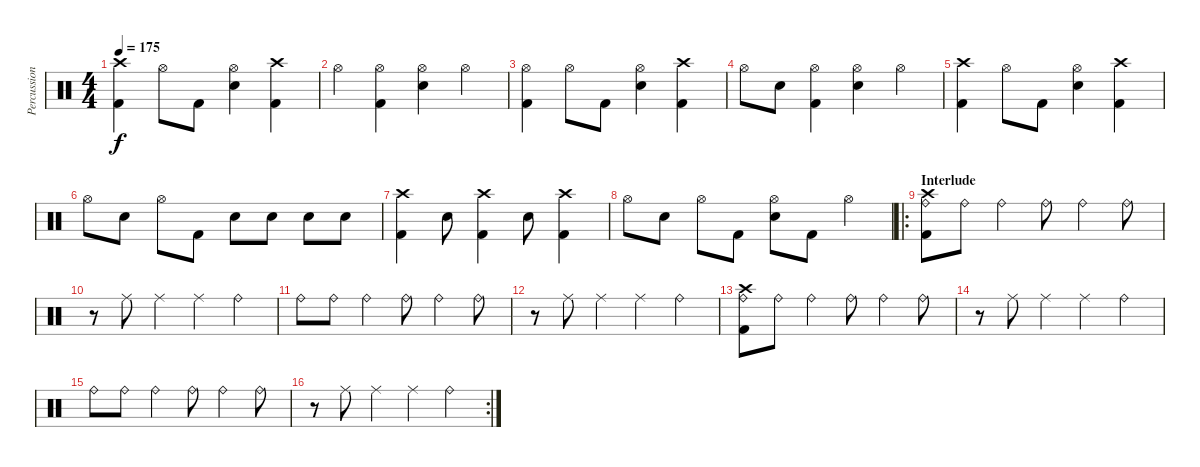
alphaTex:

\track ("Percussion" "Percussion") {instrument percussion}
\staff {score}
\articulation defaults
\ts (4 4)
\tempo 175
\clef neutral
\ks c
("Crash high (hit)" "Kick (hit) 2").4{dy f} "Hi-Hat (open)".8 "Kick (hit) 2".8 ("Hi-Hat (open)" "Electric Snare (hit)").4 ("Crash high (hit)" "Kick (hit) 2").4 |
"Hi-Hat (open)".4 ("Hi-Hat (open)" "Kick (hit) 2").4 ("Hi-Hat (open)" "Electric Snare (hit)").4 "Hi-Hat (open)".4 |
("Hi-Hat (open)" "Kick (hit) 2").4 "Hi-Hat (open)".8 "Kick (hit) 2".8 ("Hi-Hat (open)" "Electric Snare (hit)").4 ("Crash high (hit)" "Kick (hit) 2").4 |
"Hi-Hat (open)".8 "Electric Snare (hit)".8 ("Hi-Hat (open)" "Kick (hit) 2").4 ("Hi-Hat (open)" "Electric Snare (hit)").4 "Hi-Hat (open)".4 |
("Crash high (hit)" "Kick (hit) 2").4 "Hi-Hat (open)".8 "Kick (hit) 2".8 ("Hi-Hat (open)" "Electric Snare (hit)").4 ("Crash high (hit)" "Kick (hit) 2").4 |
"Hi-Hat (open)".8 "Electric Snare (hit)".8 "Hi-Hat (open)".8 "Kick (hit) 2".8 "Electric Snare (hit)".8 "Electric Snare (hit)".8 "Electric Snare (hit)".8 "Electric Snare (hit)".8 |
("Crash high (hit)" "Kick (hit) 2").4 "Electric Snare (hit)".8 ("Crash high (hit)" "Kick (hit) 2").4 "Electric Snare (hit)".8 ("Crash high (hit)" "Kick (hit) 2").4 |
"Hi-Hat (open)".8 "Electric Snare (hit)".8 "Hi-Hat (open)".8 "Kick (hit) 2".8 ("Hi-Hat (open)" "Electric Snare (hit)").8 "Kick (hit) 2".8 "Hi-Hat (open)".4 |
\ro
\section ("" "Interlude")
("Crash high (hit)" "Ride (bell)" "Kick (hit) 2").8 "Ride (bell)".8 "Ride (bell)".4 "Ride (bell)".8 "Ride (bell)".4 "Ride (bell)".8 |
r.8 "Ride (middle)".8 "Ride (middle)".4 "Ride (middle)".4 "Ride (bell)".4 |
"Ride (bell)".8 "Ride (bell)".8 "Ride (bell)".4 "Ride (bell)".8 "Ride (bell)".4 "Ride (bell)".8 |
r.8 "Ride (middle)".8 "Ride (middle)".4 "Ride (middle)".4 "Ride (bell)".4 |
("Crash high (hit)" "Ride (bell)" "Kick (hit) 2").8 "Ride (bell)".8 "Ride (bell)".4 "Ride (bell)".8 "Ride (bell)".4 "Ride (bell)".8 |
r.8 "Ride (middle)".8 "Ride (middle)".4 "Ride (middle)".4 "Ride (bell)".4 |
"Ride (bell)".8 "Ride (bell)".8 "Ride (bell)".4 "Ride (bell)".8 "Ride (bell)".4 "Ride (bell)".8 |
\rc 2
r.8 "Ride (middle)".8 "Ride (middle)".4 "Ride (middle)".4 "Ride (bell)".4
